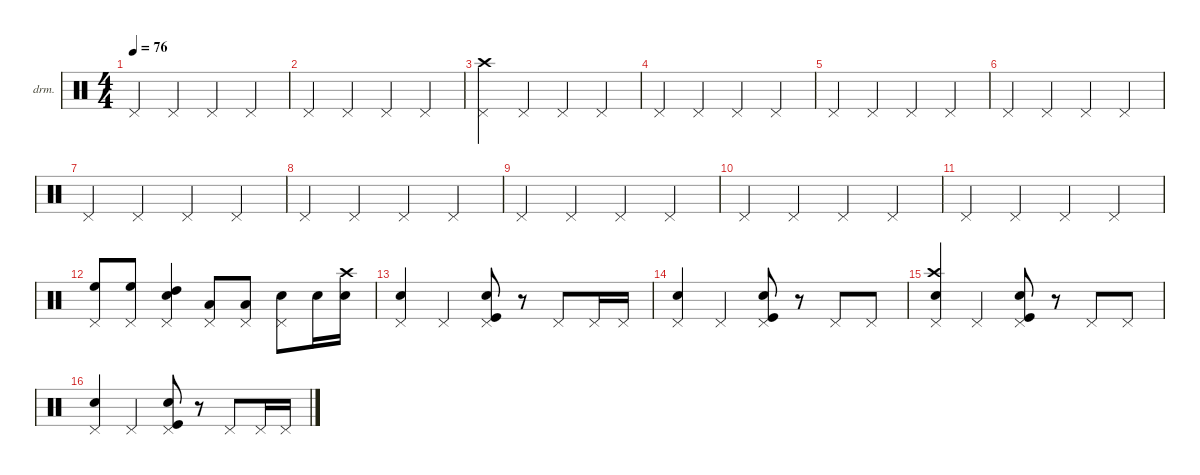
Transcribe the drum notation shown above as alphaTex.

\defaultSystemsLayout 4
\hideDynamics
\bracketExtendMode nobrackets
\firstSystemTrackNameOrientation horizontal
\otherSystemsTrackNameOrientation horizontal
\track ("Drums" "drm.") {instrument percussion}
\staff {score}
\articulation defaults
\ts (4 4)
\beaming (8 2 2 2 2)
\tempo 76
\clef neutral
\ks c "Pedal Hi-Hat (hit)".4{dy f} "Pedal Hi-Hat (hit)".4 "Pedal Hi-Hat (hit)".4 "Pedal Hi-Hat (hit)".4
|
"Pedal Hi-Hat (hit)".4 "Pedal Hi-Hat (hit)".4 "Pedal Hi-Hat (hit)".4 "Pedal Hi-Hat (hit)".4 |
("Pedal Hi-Hat (hit)" "Crash high (hit)").4 "Pedal Hi-Hat (hit)".4 "Pedal Hi-Hat (hit)".4 "Pedal Hi-Hat (hit)".4 |
"Pedal Hi-Hat (hit)".4 "Pedal Hi-Hat (hit)".4 "Pedal Hi-Hat (hit)".4 "Pedal Hi-Hat (hit)".4 |
"Pedal Hi-Hat (hit)".4 "Pedal Hi-Hat (hit)".4 "Pedal Hi-Hat (hit)".4 "Pedal Hi-Hat (hit)".4 |
"Pedal Hi-Hat (hit)".4 "Pedal Hi-Hat (hit)".4 "Pedal Hi-Hat (hit)".4 "Pedal Hi-Hat (hit)".4 |
"Pedal Hi-Hat (hit)".4 "Pedal Hi-Hat (hit)".4 "Pedal Hi-Hat (hit)".4 "Pedal Hi-Hat (hit)".4 |
"Pedal Hi-Hat (hit)".4 "Pedal Hi-Hat (hit)".4 "Pedal Hi-Hat (hit)".4 "Pedal Hi-Hat (hit)".4 |
"Pedal Hi-Hat (hit)".4 "Pedal Hi-Hat (hit)".4 "Pedal Hi-Hat (hit)".4 "Pedal Hi-Hat (hit)".4 |
"Pedal Hi-Hat (hit)".4 "Pedal Hi-Hat (hit)".4 "Pedal Hi-Hat (hit)".4 "Pedal Hi-Hat (hit)".4 |
"Pedal Hi-Hat (hit)".4 "Pedal Hi-Hat (hit)".4 "Pedal Hi-Hat (hit)".4 "Pedal Hi-Hat (hit)".4 |
("Pedal Hi-Hat (hit)" "High Floor Tom (hit)").8 ("Pedal Hi-Hat (hit)" "High Floor Tom (hit)").8 ("Pedal Hi-Hat (hit)" "High Tom (hit)" "Snare (hit) 2").4 ("Pedal Hi-Hat (hit)" "Low Tom (hit)").8 ("Pedal Hi-Hat (hit)" "Low Tom (hit)").8 ("Pedal Hi-Hat (hit)" "Snare (hit) 2").8 "Snare (hit) 2".16 ("Snare (hit) 2" "Crash high (hit)").16 |
("Pedal Hi-Hat (hit)" "Snare (hit) 2").4 "Pedal Hi-Hat (hit)".4 ("Pedal Hi-Hat (hit)" "Snare (hit) 2" "Kick (hit)").8 r.8 "Pedal Hi-Hat (hit)".8 "Pedal Hi-Hat (hit)".16 "Pedal Hi-Hat (hit)".16 |
("Pedal Hi-Hat (hit)" "Snare (hit) 2").4 "Pedal Hi-Hat (hit)".4 ("Pedal Hi-Hat (hit)" "Snare (hit) 2" "Kick (hit)").8 r.8 "Pedal Hi-Hat (hit)".8 "Pedal Hi-Hat (hit)".8 |
("Pedal Hi-Hat (hit)" "Snare (hit) 2" "Crash high (hit)").4 "Pedal Hi-Hat (hit)".4 ("Pedal Hi-Hat (hit)" "Snare (hit) 2" "Kick (hit)").8 r.8 "Pedal Hi-Hat (hit)".8 "Pedal Hi-Hat (hit)".8 |
("Pedal Hi-Hat (hit)" "Snare (hit) 2").4 "Pedal Hi-Hat (hit)".4 ("Pedal Hi-Hat (hit)" "Snare (hit) 2" "Kick (hit)").8 r.8 "Pedal Hi-Hat (hit)".8 "Pedal Hi-Hat (hit)".16 "Pedal Hi-Hat (hit)".16
